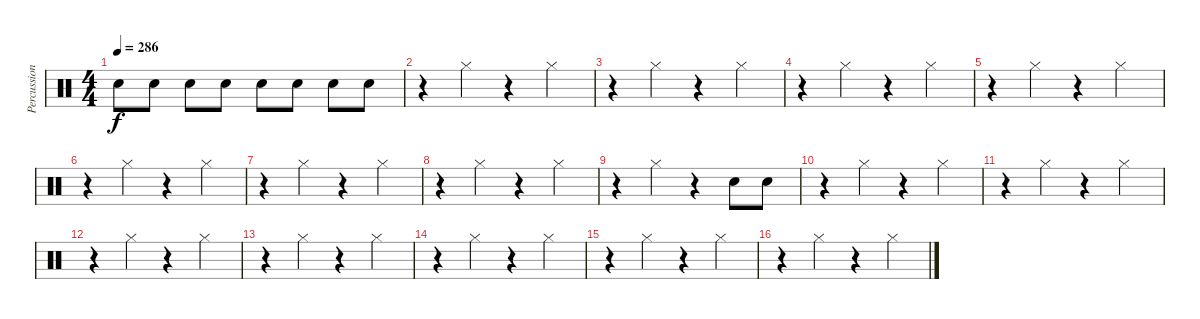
\track ("Percussions" "Percussion") {instrument percussion}
\staff {score}
\articulation defaults
\ts (4 4)
\tempo 286
\clef neutral
\ks c "Electric Snare (hit)".8{dy f} "Electric Snare (hit)".8 "Electric Snare (hit)".8 "Electric Snare (hit)".8 "Electric Snare (hit)".8 "Electric Snare (hit)".8 "Electric Snare (hit)".8 "Electric Snare (hit)".8
|
r.4 "Hi-Hat (closed)".4 r.4 "Hi-Hat (closed)".4 |
r.4 "Hi-Hat (closed)".4 r.4 "Hi-Hat (closed)".4 |
r.4 "Hi-Hat (closed)".4 r.4 "Hi-Hat (closed)".4 |
r.4 "Hi-Hat (closed)".4 r.4 "Hi-Hat (closed)".4 |
r.4 "Hi-Hat (closed)".4 r.4 "Hi-Hat (closed)".4 |
r.4 "Hi-Hat (closed)".4 r.4 "Hi-Hat (closed)".4 |
r.4 "Hi-Hat (closed)".4 r.4 "Hi-Hat (closed)".4 |
r.4 "Hi-Hat (closed)".4 r.4 "Electric Snare (hit)".8 "Electric Snare (hit)".8 |
r.4 "Hi-Hat (closed)".4 r.4 "Hi-Hat (closed)".4 |
r.4 "Hi-Hat (closed)".4 r.4 "Hi-Hat (closed)".4 |
r.4 "Hi-Hat (closed)".4 r.4 "Hi-Hat (closed)".4 |
r.4 "Hi-Hat (closed)".4 r.4 "Hi-Hat (closed)".4 |
r.4 "Hi-Hat (closed)".4 r.4 "Hi-Hat (closed)".4 |
r.4 "Hi-Hat (closed)".4 r.4 "Hi-Hat (closed)".4 |
r.4 "Hi-Hat (closed)".4 r.4 "Hi-Hat (closed)".4
